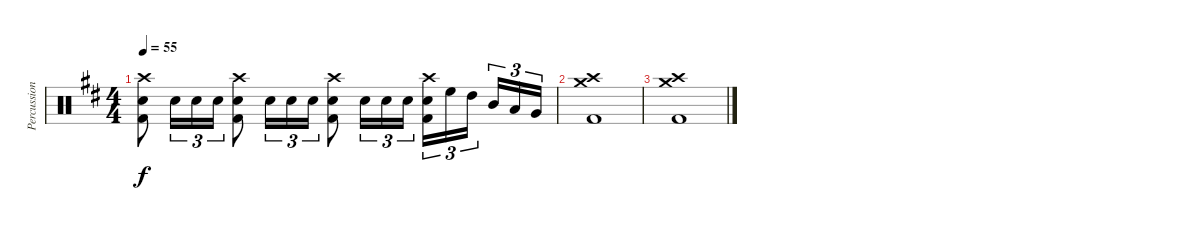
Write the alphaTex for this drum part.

\track ("Percussion" "Percussion") {instrument percussion}
\staff {score}
\articulation defaults
\ts (4 4)
\tempo 55
\clef neutral
\ks d
("Crash high (hit)" "Electric Snare (hit)" "Kick (hit) 2").8{dy f} "Electric Snare (hit)".16{tu (3 2)} "Electric Snare (hit)".16{tu (3 2)} "Electric Snare (hit)".16{tu (3 2)} ("Crash high (hit)" "Electric Snare (hit)" "Kick (hit) 2").8 "Electric Snare (hit)".16{tu (3 2)} "Electric Snare (hit)".16{tu (3 2)} "Electric Snare (hit)".16{tu (3 2)} ("Crash high (hit)" "Electric Snare (hit)" "Kick (hit) 2").8 "Electric Snare (hit)".16{tu (3 2)} "Electric Snare (hit)".16{tu (3 2)} "Electric Snare (hit)".16{tu (3 2)} ("Crash high (hit)" "Electric Snare (hit)" "Kick (hit) 2").16{tu (3 2)} "High Floor Tom (hit)".16{tu (3 2)} "High Tom (hit)".16{tu (3 2) beam splitsecondary} "Mid Tom (hit)".16{tu (3 2)} "Low Tom (hit)".16{tu (3 2)} "Very Low Tom (hit)".16{tu (3 2)} |
("Crash high (hit)" "Crash medium (hit)" "Kick (hit) 2").1 |
("Crash high (hit)" "Crash medium (hit)" "Kick (hit) 2").1
